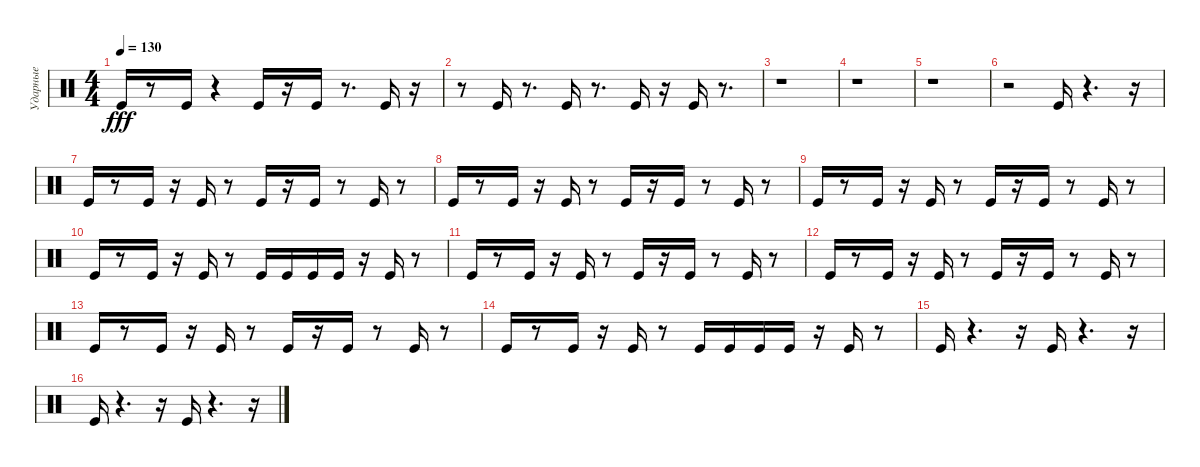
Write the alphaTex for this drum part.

\track ("Ударные" "Ударные") {instrument percussion}
\staff {score}
\articulation defaults
\ts (4 4)
\tempo 130
\clef neutral
\ks c "Kick (hit)".16{dy fff}
r.8 "Kick (hit)".16 r.4 "Kick (hit)".16 r.16 "Kick (hit)".16 r.8{d} "Kick (hit)".16 r.16 |
r.8 "Kick (hit)".16 r.8{d} "Kick (hit)".16 r.8{d} "Kick (hit)".16 r.16 "Kick (hit)".16 r.8{d} |
r.1 |
r.1 |
r.1 |
r.2 "Kick (hit)".16 r.4{d} r.16 |
"Kick (hit)".16 r.8 "Kick (hit)".16 r.16 "Kick (hit)".16 r.8 "Kick (hit)".16 r.16 "Kick (hit)".16 r.8 "Kick (hit)".16 r.8 |
"Kick (hit)".16 r.8 "Kick (hit)".16 r.16 "Kick (hit)".16 r.8 "Kick (hit)".16 r.16 "Kick (hit)".16 r.8 "Kick (hit)".16 r.8 |
"Kick (hit)".16 r.8 "Kick (hit)".16 r.16 "Kick (hit)".16 r.8 "Kick (hit)".16 r.16 "Kick (hit)".16 r.8 "Kick (hit)".16 r.8 |
"Kick (hit)".16 r.8 "Kick (hit)".16 r.16 "Kick (hit)".16 r.8 "Kick (hit)".16 "Kick (hit)".16 "Kick (hit)".16 "Kick (hit)".16 r.16 "Kick (hit)".16 r.8 |
"Kick (hit)".16 r.8 "Kick (hit)".16 r.16 "Kick (hit)".16 r.8 "Kick (hit)".16 r.16 "Kick (hit)".16 r.8 "Kick (hit)".16 r.8 |
"Kick (hit)".16 r.8 "Kick (hit)".16 r.16 "Kick (hit)".16 r.8 "Kick (hit)".16 r.16 "Kick (hit)".16 r.8 "Kick (hit)".16 r.8 |
"Kick (hit)".16 r.8 "Kick (hit)".16 r.16 "Kick (hit)".16 r.8 "Kick (hit)".16 r.16 "Kick (hit)".16 r.8 "Kick (hit)".16 r.8 |
"Kick (hit)".16 r.8 "Kick (hit)".16 r.16 "Kick (hit)".16 r.8 "Kick (hit)".16 "Kick (hit)".16 "Kick (hit)".16 "Kick (hit)".16 r.16 "Kick (hit)".16 r.8 |
"Kick (hit)".16 r.4{d} r.16 "Kick (hit)".16 r.4{d} r.16 |
"Kick (hit)".16 r.4{d} r.16 "Kick (hit)".16 r.4{d} r.16
